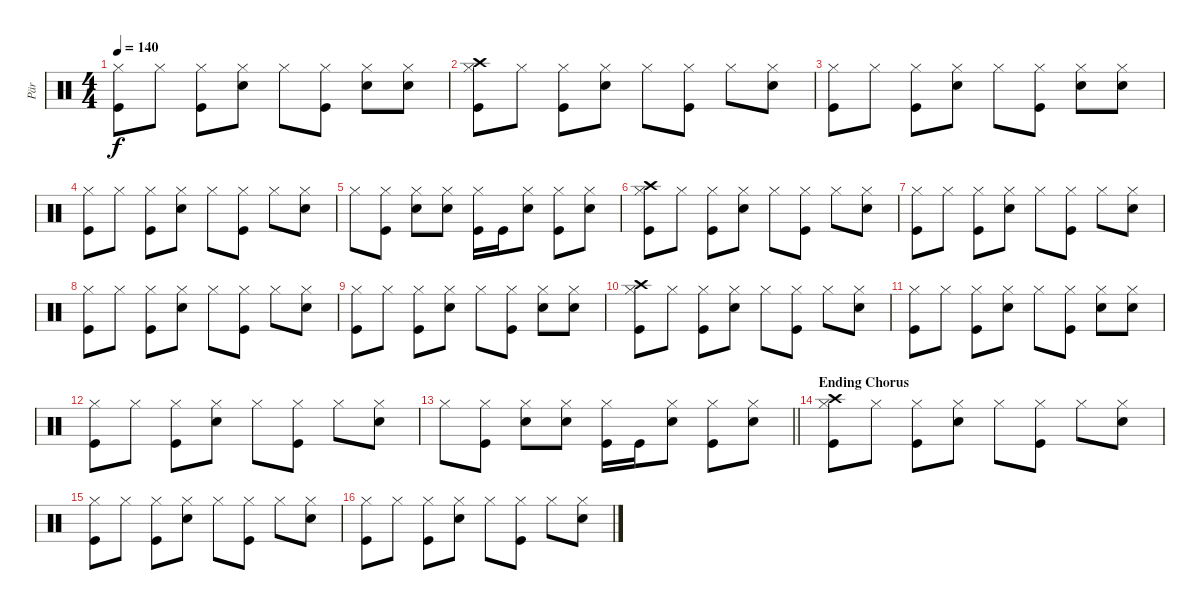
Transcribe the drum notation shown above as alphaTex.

\track ("Pär" "Pär") {instrument percussion}
\staff {score}
\articulation defaults
\ts (4 4)
\tempo 140
\clef neutral
\ks c
("Hi-Hat (closed)" "Kick (hit)").8{dy f} "Hi-Hat (closed)".8 ("Hi-Hat (closed)" "Kick (hit)").8 ("Hi-Hat (closed)" "Snare (hit) 2").8 "Hi-Hat (closed)".8 ("Hi-Hat (closed)" "Kick (hit)").8 ("Hi-Hat (closed)" "Snare (hit) 2").8 ("Hi-Hat (closed)" "Snare (hit) 2").8 |
("Hi-Hat (closed)" "Crash high (hit)" "Kick (hit)").8 "Hi-Hat (closed)".8 ("Hi-Hat (closed)" "Kick (hit)").8 ("Hi-Hat (closed)" "Snare (hit) 2").8 "Hi-Hat (closed)".8 ("Hi-Hat (closed)" "Kick (hit)").8 "Hi-Hat (closed)".8 ("Hi-Hat (closed)" "Snare (hit) 2").8 |
("Hi-Hat (closed)" "Kick (hit)").8 "Hi-Hat (closed)".8 ("Hi-Hat (closed)" "Kick (hit)").8 ("Hi-Hat (closed)" "Snare (hit) 2").8 "Hi-Hat (closed)".8 ("Hi-Hat (closed)" "Kick (hit)").8 ("Hi-Hat (closed)" "Snare (hit) 2").8 ("Hi-Hat (closed)" "Snare (hit) 2").8 |
("Hi-Hat (closed)" "Kick (hit)").8 "Hi-Hat (closed)".8 ("Hi-Hat (closed)" "Kick (hit)").8 ("Hi-Hat (closed)" "Snare (hit) 2").8 "Hi-Hat (closed)".8 ("Hi-Hat (closed)" "Kick (hit)").8 "Hi-Hat (closed)".8 ("Hi-Hat (closed)" "Snare (hit) 2").8 |
"Hi-Hat (closed)".8 ("Hi-Hat (closed)" "Kick (hit)").8 ("Hi-Hat (closed)" "Snare (hit) 2").8 ("Hi-Hat (closed)" "Snare (hit) 2").8 ("Hi-Hat (closed)" "Kick (hit)").16 "Kick (hit)".16 ("Hi-Hat (closed)" "Snare (hit) 2").8 ("Hi-Hat (closed)" "Kick (hit)").8 ("Hi-Hat (closed)" "Snare (hit) 2").8 |
("Hi-Hat (closed)" "Crash high (hit)" "Kick (hit)").8 "Hi-Hat (closed)".8 ("Hi-Hat (closed)" "Kick (hit)").8 ("Hi-Hat (closed)" "Snare (hit) 2").8 "Hi-Hat (closed)".8 ("Hi-Hat (closed)" "Kick (hit)").8 "Hi-Hat (closed)".8 ("Hi-Hat (closed)" "Snare (hit) 2").8 |
("Hi-Hat (closed)" "Kick (hit)").8 "Hi-Hat (closed)".8 ("Hi-Hat (closed)" "Kick (hit)").8 ("Hi-Hat (closed)" "Snare (hit) 2").8 "Hi-Hat (closed)".8 ("Hi-Hat (closed)" "Kick (hit)").8 "Hi-Hat (closed)".8 ("Hi-Hat (closed)" "Snare (hit) 2").8 |
("Hi-Hat (closed)" "Kick (hit)").8 "Hi-Hat (closed)".8 ("Hi-Hat (closed)" "Kick (hit)").8 ("Hi-Hat (closed)" "Snare (hit) 2").8 "Hi-Hat (closed)".8 ("Hi-Hat (closed)" "Kick (hit)").8 "Hi-Hat (closed)".8 ("Hi-Hat (closed)" "Snare (hit) 2").8 |
("Hi-Hat (closed)" "Kick (hit)").8 "Hi-Hat (closed)".8 ("Hi-Hat (closed)" "Kick (hit)").8 ("Hi-Hat (closed)" "Snare (hit) 2").8 "Hi-Hat (closed)".8 ("Hi-Hat (closed)" "Kick (hit)").8 ("Hi-Hat (closed)" "Snare (hit) 2").8 ("Hi-Hat (closed)" "Snare (hit) 2").8 |
("Hi-Hat (closed)" "Crash high (hit)" "Kick (hit)").8 "Hi-Hat (closed)".8 ("Hi-Hat (closed)" "Kick (hit)").8 ("Hi-Hat (closed)" "Snare (hit) 2").8 "Hi-Hat (closed)".8 ("Hi-Hat (closed)" "Kick (hit)").8 "Hi-Hat (closed)".8 ("Hi-Hat (closed)" "Snare (hit) 2").8 |
("Hi-Hat (closed)" "Kick (hit)").8 "Hi-Hat (closed)".8 ("Hi-Hat (closed)" "Kick (hit)").8 ("Hi-Hat (closed)" "Snare (hit) 2").8 "Hi-Hat (closed)".8 ("Hi-Hat (closed)" "Kick (hit)").8 ("Hi-Hat (closed)" "Snare (hit) 2").8 ("Hi-Hat (closed)" "Snare (hit) 2").8 |
("Hi-Hat (closed)" "Kick (hit)").8 "Hi-Hat (closed)".8 ("Hi-Hat (closed)" "Kick (hit)").8 ("Hi-Hat (closed)" "Snare (hit) 2").8 "Hi-Hat (closed)".8 ("Hi-Hat (closed)" "Kick (hit)").8 "Hi-Hat (closed)".8 ("Hi-Hat (closed)" "Snare (hit) 2").8 |
\barLineRight lightlight "Hi-Hat (closed)".8
("Hi-Hat (closed)" "Kick (hit)").8 ("Hi-Hat (closed)" "Snare (hit) 2").8 ("Hi-Hat (closed)" "Snare (hit) 2").8 ("Hi-Hat (closed)" "Kick (hit)").16 "Kick (hit)".16 ("Hi-Hat (closed)" "Snare (hit) 2").8 ("Hi-Hat (closed)" "Kick (hit)").8 ("Hi-Hat (closed)" "Snare (hit) 2").8 |
\section ("" "Ending Chorus")
("Hi-Hat (closed)" "Crash high (hit)" "Kick (hit)").8 "Hi-Hat (closed)".8 ("Hi-Hat (closed)" "Kick (hit)").8 ("Hi-Hat (closed)" "Snare (hit) 2").8 "Hi-Hat (closed)".8 ("Hi-Hat (closed)" "Kick (hit)").8 "Hi-Hat (closed)".8 ("Hi-Hat (closed)" "Snare (hit) 2").8 |
("Hi-Hat (closed)" "Kick (hit)").8 "Hi-Hat (closed)".8 ("Hi-Hat (closed)" "Kick (hit)").8 ("Hi-Hat (closed)" "Snare (hit) 2").8 "Hi-Hat (closed)".8 ("Hi-Hat (closed)" "Kick (hit)").8 "Hi-Hat (closed)".8 ("Hi-Hat (closed)" "Snare (hit) 2").8 |
("Hi-Hat (closed)" "Kick (hit)").8 "Hi-Hat (closed)".8 ("Hi-Hat (closed)" "Kick (hit)").8 ("Hi-Hat (closed)" "Snare (hit) 2").8 "Hi-Hat (closed)".8 ("Hi-Hat (closed)" "Kick (hit)").8 "Hi-Hat (closed)".8 ("Hi-Hat (closed)" "Snare (hit) 2").8
